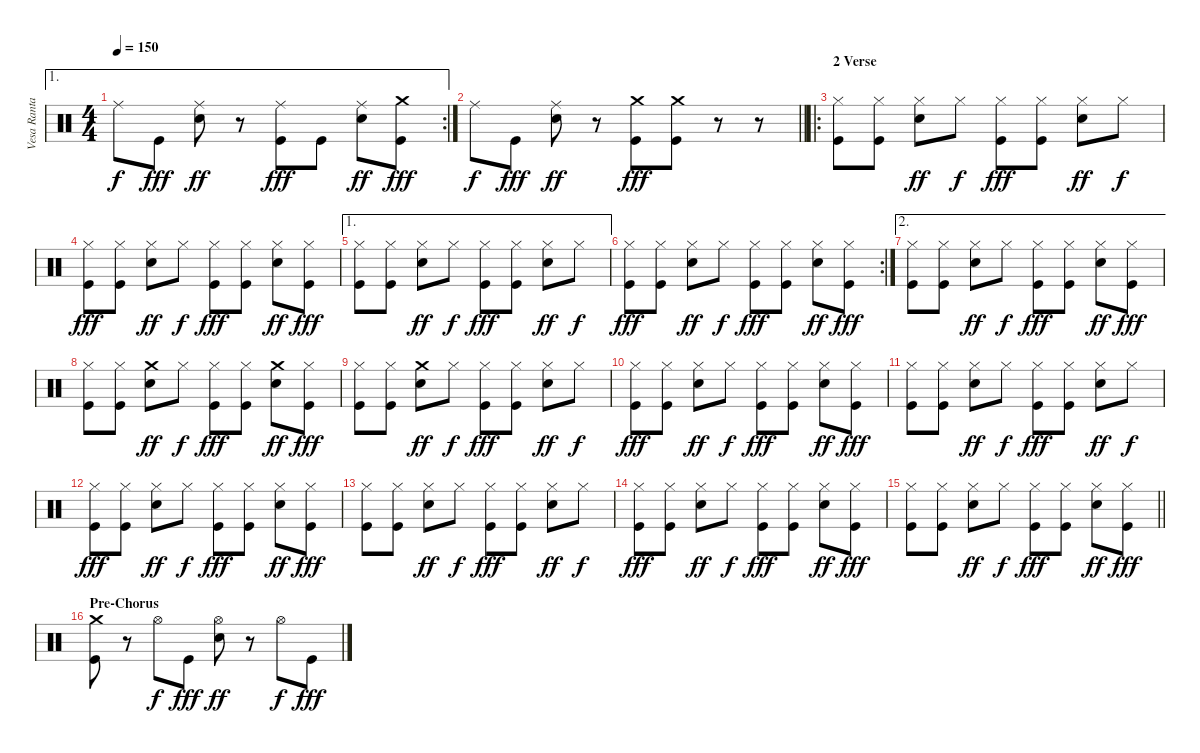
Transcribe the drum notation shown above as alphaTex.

\track ("Vesa Ranta" "Vesa Ranta") {instrument percussion}
\staff {score}
\articulation defaults
\ae 1
\rc 2
\ts (4 4)
\tempo 150
\clef neutral
\ks c "Ride (middle)".8{dy f} "Kick (hit)".8{dy fff}
("Ride (middle)" "Snare (hit) 2").8{dy ff} r.8 ("Ride (middle)" "Kick (hit)").8{dy fff} "Kick (hit)".8 ("Ride (middle)" "Snare (hit) 2").8{dy ff} ("Crash medium (hit)" "Kick (hit)").8{dy fff} |
\barLineRight lightlight "Ride (middle)".8{dy f} "Kick (hit)".8{dy fff}
("Ride (middle)" "Snare (hit) 2").8{dy ff} r.8 ("Crash medium (hit)" "Kick (hit)").8{dy fff} ("Crash medium (hit)" "Kick (hit)").8 r.8 r.8 |
\ro
\section ("" "2 Verse")
("Hi-Hat (closed)" "Kick (hit)").8 ("Hi-Hat (closed)" "Kick (hit)").8 ("Hi-Hat (closed)" "Snare (hit) 2").8{dy ff} "Hi-Hat (closed)".8{dy f} ("Hi-Hat (closed)" "Kick (hit)").8{dy fff} ("Hi-Hat (closed)" "Kick (hit)").8 ("Hi-Hat (closed)" "Snare (hit) 2").8{dy ff} "Hi-Hat (closed)".8{dy f} |
("Hi-Hat (closed)" "Kick (hit)").8{dy fff} ("Hi-Hat (closed)" "Kick (hit)").8 ("Hi-Hat (closed)" "Snare (hit) 2").8{dy ff} "Hi-Hat (closed)".8{dy f} ("Hi-Hat (closed)" "Kick (hit)").8{dy fff} ("Hi-Hat (closed)" "Kick (hit)").8 ("Hi-Hat (closed)" "Snare (hit) 2").8{dy ff} ("Hi-Hat (closed)" "Kick (hit)").8{dy fff} |
\ae 1
("Hi-Hat (closed)" "Kick (hit)").8 ("Hi-Hat (closed)" "Kick (hit)").8 ("Hi-Hat (closed)" "Snare (hit) 2").8{dy ff} "Hi-Hat (closed)".8{dy f} ("Hi-Hat (closed)" "Kick (hit)").8{dy fff} ("Hi-Hat (closed)" "Kick (hit)").8 ("Hi-Hat (closed)" "Snare (hit) 2").8{dy ff} "Hi-Hat (closed)".8{dy f} |
\rc 2
("Hi-Hat (closed)" "Kick (hit)").8{dy fff} ("Hi-Hat (closed)" "Kick (hit)").8 ("Hi-Hat (closed)" "Snare (hit) 2").8{dy ff} "Hi-Hat (closed)".8{dy f} ("Hi-Hat (closed)" "Kick (hit)").8{dy fff} ("Hi-Hat (closed)" "Kick (hit)").8 ("Hi-Hat (closed)" "Snare (hit) 2").8{dy ff} ("Hi-Hat (closed)" "Kick (hit)").8{dy fff} |
\ae 2
("Hi-Hat (closed)" "Kick (hit)").8 ("Hi-Hat (closed)" "Kick (hit)").8 ("Hi-Hat (closed)" "Snare (hit) 2").8{dy ff} "Hi-Hat (closed)".8{dy f} ("Hi-Hat (closed)" "Kick (hit)").8{dy fff} ("Hi-Hat (closed)" "Kick (hit)").8 ("Hi-Hat (closed)" "Snare (hit) 2").8{dy ff} ("Hi-Hat (closed)" "Kick (hit)").8{dy fff} |
("Hi-Hat (closed)" "Kick (hit)").8 ("Hi-Hat (closed)" "Kick (hit)").8 ("Crash medium (hit)" "Snare (hit) 2").8{dy ff} "Hi-Hat (closed)".8{dy f} ("Hi-Hat (closed)" "Kick (hit)").8{dy fff} ("Hi-Hat (closed)" "Kick (hit)").8 ("Crash medium (hit)" "Snare (hit) 2").8{dy ff} ("Hi-Hat (closed)" "Kick (hit)").8{dy fff} |
("Hi-Hat (closed)" "Kick (hit)").8 ("Hi-Hat (closed)" "Kick (hit)").8 ("Crash medium (hit)" "Snare (hit) 2").8{dy ff} "Hi-Hat (closed)".8{dy f} ("Hi-Hat (closed)" "Kick (hit)").8{dy fff} ("Hi-Hat (closed)" "Kick (hit)").8 ("Hi-Hat (closed)" "Snare (hit) 2").8{dy ff} "Hi-Hat (closed)".8{dy f} |
("Hi-Hat (closed)" "Kick (hit)").8{dy fff} ("Hi-Hat (closed)" "Kick (hit)").8 ("Hi-Hat (closed)" "Snare (hit) 2").8{dy ff} "Hi-Hat (closed)".8{dy f} ("Hi-Hat (closed)" "Kick (hit)").8{dy fff} ("Hi-Hat (closed)" "Kick (hit)").8 ("Hi-Hat (closed)" "Snare (hit) 2").8{dy ff} ("Hi-Hat (closed)" "Kick (hit)").8{dy fff} |
("Hi-Hat (closed)" "Kick (hit)").8 ("Hi-Hat (closed)" "Kick (hit)").8 ("Hi-Hat (closed)" "Snare (hit) 2").8{dy ff} "Hi-Hat (closed)".8{dy f} ("Hi-Hat (closed)" "Kick (hit)").8{dy fff} ("Hi-Hat (closed)" "Kick (hit)").8 ("Hi-Hat (closed)" "Snare (hit) 2").8{dy ff} "Hi-Hat (closed)".8{dy f} |
("Hi-Hat (closed)" "Kick (hit)").8{dy fff} ("Hi-Hat (closed)" "Kick (hit)").8 ("Hi-Hat (closed)" "Snare (hit) 2").8{dy ff} "Hi-Hat (closed)".8{dy f} ("Hi-Hat (closed)" "Kick (hit)").8{dy fff} ("Hi-Hat (closed)" "Kick (hit)").8 ("Hi-Hat (closed)" "Snare (hit) 2").8{dy ff} ("Hi-Hat (closed)" "Kick (hit)").8{dy fff} |
("Hi-Hat (closed)" "Kick (hit)").8 ("Hi-Hat (closed)" "Kick (hit)").8 ("Hi-Hat (closed)" "Snare (hit) 2").8{dy ff} "Hi-Hat (closed)".8{dy f} ("Hi-Hat (closed)" "Kick (hit)").8{dy fff} ("Hi-Hat (closed)" "Kick (hit)").8 ("Hi-Hat (closed)" "Snare (hit) 2").8{dy ff} "Hi-Hat (closed)".8{dy f} |
("Hi-Hat (closed)" "Kick (hit)").8{dy fff} ("Hi-Hat (closed)" "Kick (hit)").8 ("Hi-Hat (closed)" "Snare (hit) 2").8{dy ff} "Hi-Hat (closed)".8{dy f} ("Hi-Hat (closed)" "Kick (hit)").8{dy fff} ("Hi-Hat (closed)" "Kick (hit)").8 ("Hi-Hat (closed)" "Snare (hit) 2").8{dy ff} ("Hi-Hat (closed)" "Kick (hit)").8{dy fff} |
\barLineRight lightlight
("Hi-Hat (closed)" "Kick (hit)").8 ("Hi-Hat (closed)" "Kick (hit)").8 ("Hi-Hat (closed)" "Snare (hit) 2").8{dy ff} "Hi-Hat (closed)".8{dy f} ("Hi-Hat (closed)" "Kick (hit)").8{dy fff} ("Hi-Hat (closed)" "Kick (hit)").8 ("Hi-Hat (closed)" "Snare (hit) 2").8{dy ff} ("Hi-Hat (closed)" "Kick (hit)").8{dy fff} |
\section ("" "Pre-Chorus")
("Crash medium (hit)" "Kick (hit)").8 r.8 "Hi-Hat (open)".8{dy f} "Kick (hit)".8{dy fff} ("Hi-Hat (open)" "Snare (hit) 2").8{dy ff} r.8 "Hi-Hat (open)".8{dy f} "Kick (hit)".8{dy fff}
